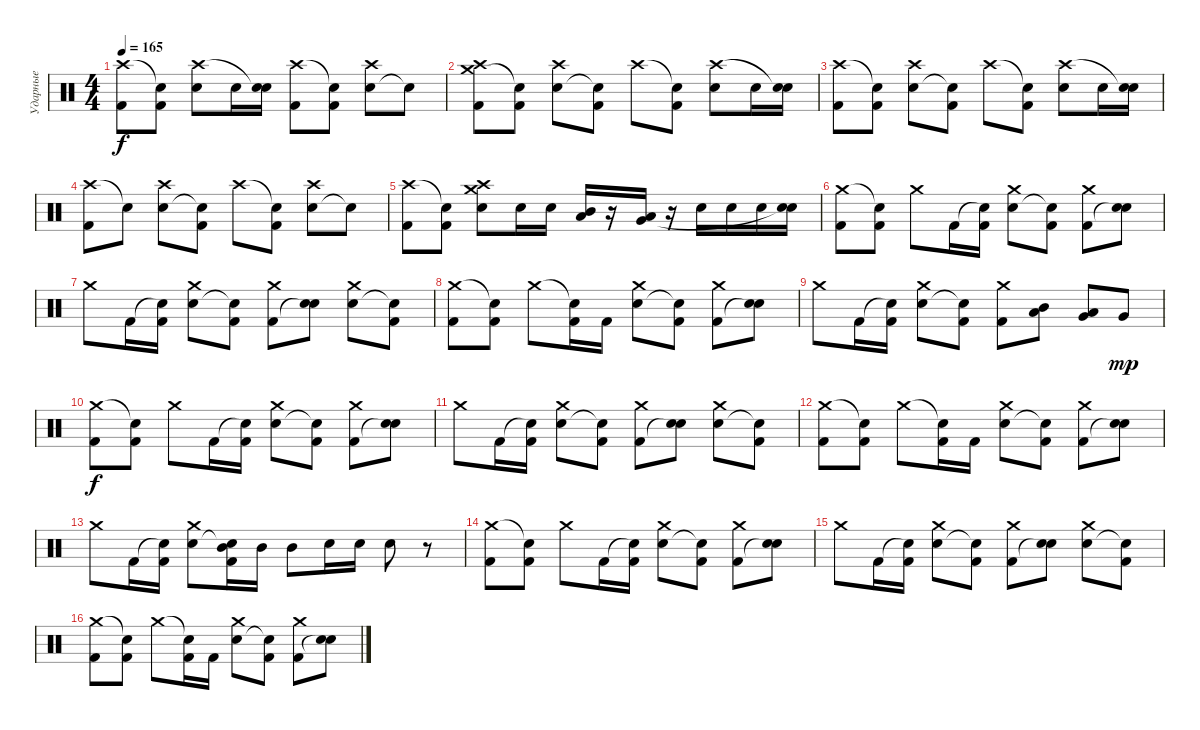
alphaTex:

\track ("Ударные" "Ударные") {instrument percussion}
\staff {score}
\articulation defaults
\ts (4 4)
\tempo 165
\clef neutral
\ks c
("Crash high (hit)" "Kick (hit) 2").8{dy f} ("Snare (hit)"{t} "Kick (hit) 2").8 ("Electric Snare (hit)" "Crash high (hit)").8 "Electric Snare (hit)".16 ("Electric Snare (hit)" "Electric Snare (hit)"{t}).16 ("Crash high (hit)" "Kick (hit) 2").8 ("Snare (hit)"{t} "Kick (hit) 2").8 ("Electric Snare (hit)" "Crash high (hit)").8 "Snare (hit)"{t}.8 |
("Crash medium (hit)" "Crash high (hit)" "Kick (hit) 2").8 ("Snare (hit)"{t} "Kick (hit) 2").8 ("Electric Snare (hit)" "Crash high (hit)").8 ("Snare (hit)"{t} "Kick (hit) 2").8 "Crash high (hit)".8 ("Snare (hit)"{t} "Kick (hit) 2").8 ("Electric Snare (hit)" "Crash high (hit)").8 "Electric Snare (hit)".16 ("Electric Snare (hit)" "Electric Snare (hit)"{t}).16 |
("Crash high (hit)" "Kick (hit) 2").8 ("Snare (hit)"{t} "Kick (hit) 2").8 ("Electric Snare (hit)" "Crash high (hit)").8 ("Snare (hit)"{t} "Kick (hit) 2").8 "Crash high (hit)".8 ("Snare (hit)"{t} "Kick (hit) 2").8 ("Electric Snare (hit)" "Crash high (hit)").8 "Electric Snare (hit)".16 ("Electric Snare (hit)" "Electric Snare (hit)"{t}).16 |
("Crash high (hit)" "Kick (hit) 2").8 "Snare (hit)"{t}.8 ("Electric Snare (hit)" "Crash high (hit)").8 ("Snare (hit)"{t} "Kick (hit) 2").8 "Crash high (hit)".8 ("Snare (hit)"{t} "Kick (hit) 2").8 ("Electric Snare (hit)" "Crash high (hit)").8 "Snare (hit)"{t}.8 |
("Crash high (hit)" "Kick (hit) 2").8 ("Snare (hit)"{t} "Kick (hit) 2").8 ("Electric Snare (hit)" "Crash medium (hit)" "Crash high (hit)").8 "Electric Snare (hit)".16 "Electric Snare (hit)".16 ("Low Tom (hit)" "Mid Tom (hit)").16 r.16 ("Low Tom (hit)" "Very Low Tom (hit)").16 r.16 "Electric Snare (hit)".16 "Electric Snare (hit)".16 "Electric Snare (hit)".16 ("Electric Snare (hit)" "Snare (hit)"{t}).16 |
("Crash medium (hit)" "Kick (hit) 2").8 ("Snare (hit)"{t} "Kick (hit) 2").8 "Crash medium (hit)".8 "Kick (hit) 2".16 ("Snare (hit)"{t} "Kick (hit) 2").16 ("Electric Snare (hit)" "Crash medium (hit)").8 ("Snare (hit)"{t} "Kick (hit) 2").8 ("Crash medium (hit)" "Kick (hit) 2").8 ("Electric Snare (hit)" "Snare (hit)"{t}).8 |
"Crash medium (hit)".8 "Kick (hit) 2".16 ("Snare (hit)"{t} "Kick (hit) 2").16 ("Electric Snare (hit)" "Crash medium (hit)").8 ("Snare (hit)"{t} "Kick (hit) 2").8 ("Crash medium (hit)" "Kick (hit) 2").8 ("Electric Snare (hit)" "Snare (hit)"{t}).8 ("Electric Snare (hit)" "Crash medium (hit)").8 ("Snare (hit)"{t} "Kick (hit) 2").8 |
("Crash medium (hit)" "Kick (hit) 2").8 ("Snare (hit)"{t} "Kick (hit) 2").8 "Crash medium (hit)".8 ("Snare (hit)"{t} "Kick (hit) 2").16 "Kick (hit) 2".16 ("Electric Snare (hit)" "Crash medium (hit)").8 ("Snare (hit)"{t} "Kick (hit) 2").8 ("Crash medium (hit)" "Kick (hit) 2").8 ("Electric Snare (hit)" "Snare (hit)"{t}).8 |
"Crash medium (hit)".8 "Kick (hit) 2".16 ("Snare (hit)"{t} "Kick (hit) 2").16 ("Electric Snare (hit)" "Crash medium (hit)").8 ("Snare (hit)"{t} "Kick (hit) 2").8 ("Crash medium (hit)" "Kick (hit) 2").8 ("Low Tom (hit)" "Mid Tom (hit)").8 ("Low Tom (hit)" "Very Low Tom (hit)").8 "Very Low Tom (hit)".8{dy mp} |
("Crash medium (hit)" "Kick (hit) 2").8{dy f} ("Snare (hit)"{t} "Kick (hit) 2").8 "Crash medium (hit)".8 "Kick (hit) 2".16 ("Snare (hit)"{t} "Kick (hit) 2").16 ("Electric Snare (hit)" "Crash medium (hit)").8 ("Snare (hit)"{t} "Kick (hit) 2").8 ("Crash medium (hit)" "Kick (hit) 2").8 ("Electric Snare (hit)" "Snare (hit)"{t}).8 |
"Crash medium (hit)".8 "Kick (hit) 2".16 ("Snare (hit)"{t} "Kick (hit) 2").16 ("Electric Snare (hit)" "Crash medium (hit)").8 ("Snare (hit)"{t} "Kick (hit) 2").8 ("Crash medium (hit)" "Kick (hit) 2").8 ("Electric Snare (hit)" "Snare (hit)"{t}).8 ("Electric Snare (hit)" "Crash medium (hit)").8 ("Snare (hit)"{t} "Kick (hit) 2").8 |
("Crash medium (hit)" "Kick (hit) 2").8 ("Snare (hit)"{t} "Kick (hit) 2").8 "Crash medium (hit)".8 ("Snare (hit)"{t} "Kick (hit) 2").16 "Kick (hit) 2".16 ("Electric Snare (hit)" "Crash medium (hit)").8 ("Snare (hit)"{t} "Kick (hit) 2").8 ("Crash medium (hit)" "Kick (hit) 2").8 ("Electric Snare (hit)" "Snare (hit)"{t}).8 |
"Crash medium (hit)".8 "Kick (hit) 2".16 ("Snare (hit)"{t} "Kick (hit) 2").16 ("Electric Snare (hit)" "Crash medium (hit)").8 ("Snare (hit)"{t} "Mid Tom (hit)" "Kick (hit) 2").16 "Mid Tom (hit)".16 "Mid Tom (hit)".8 "Electric Snare (hit)".16 "Electric Snare (hit)".16 "Electric Snare (hit)".8 r.8 |
("Crash medium (hit)" "Kick (hit) 2").8 ("Snare (hit)"{t} "Kick (hit) 2").8 "Crash medium (hit)".8 "Kick (hit) 2".16 ("Snare (hit)"{t} "Kick (hit) 2").16 ("Electric Snare (hit)" "Crash medium (hit)").8 ("Snare (hit)"{t} "Kick (hit) 2").8 ("Crash medium (hit)" "Kick (hit) 2").8 ("Electric Snare (hit)" "Snare (hit)"{t}).8 |
"Crash medium (hit)".8 "Kick (hit) 2".16 ("Snare (hit)"{t} "Kick (hit) 2").16 ("Electric Snare (hit)" "Crash medium (hit)").8 ("Snare (hit)"{t} "Kick (hit) 2").8 ("Crash medium (hit)" "Kick (hit) 2").8 ("Electric Snare (hit)" "Snare (hit)"{t}).8 ("Electric Snare (hit)" "Crash medium (hit)").8 ("Snare (hit)"{t} "Kick (hit) 2").8 |
("Crash medium (hit)" "Kick (hit) 2").8 ("Snare (hit)"{t} "Kick (hit) 2").8 "Crash medium (hit)".8 ("Snare (hit)"{t} "Kick (hit) 2").16 "Kick (hit) 2".16 ("Electric Snare (hit)" "Crash medium (hit)").8 ("Snare (hit)"{t} "Kick (hit) 2").8 ("Crash medium (hit)" "Kick (hit) 2").8 ("Electric Snare (hit)" "Snare (hit)"{t}).8
